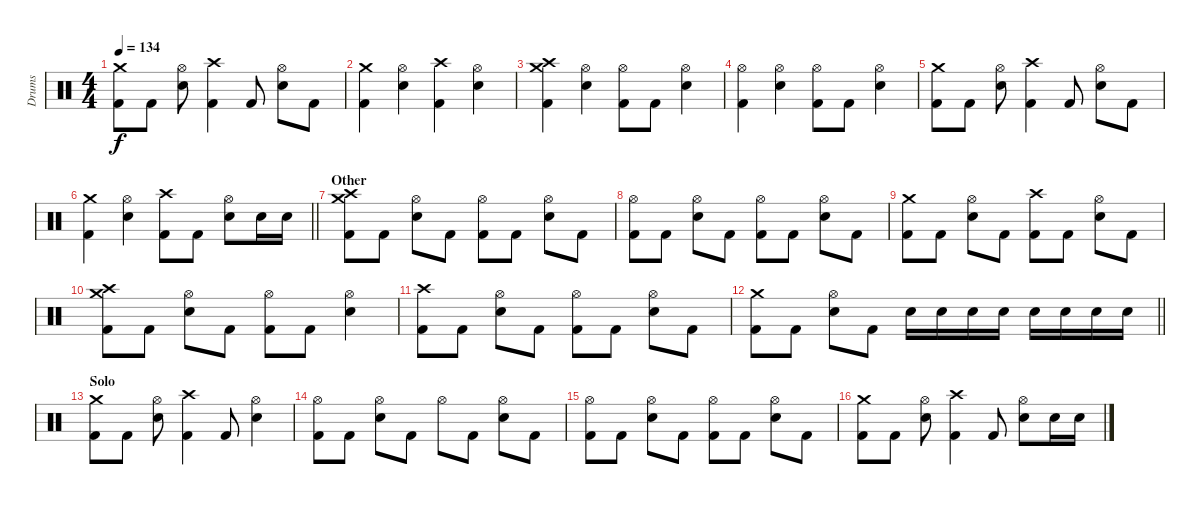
\track ("Drums" "Drums") {instrument percussion}
\staff {score}
\articulation defaults
\ts (4 4)
\tempo 134
\clef neutral
\ks c
("Crash medium (hit)" "Kick (hit) 2").8{dy f} "Kick (hit) 2".8 ("Hi-Hat (open)" "Snare (hit) 2").8 ("Crash high (hit)" "Kick (hit) 2").4 "Kick (hit) 2".8 ("Hi-Hat (open)" "Snare (hit) 2").8 "Kick (hit) 2".8 |
("Crash medium (hit)" "Kick (hit) 2").4 ("Hi-Hat (open)" "Snare (hit) 2").4 ("Crash high (hit)" "Kick (hit) 2").4 ("Hi-Hat (open)" "Snare (hit) 2").4 |
("Crash medium (hit)" "Crash high (hit)" "Kick (hit) 2").4 ("Hi-Hat (open)" "Snare (hit) 2").4 ("Hi-Hat (open)" "Kick (hit) 2").8 "Kick (hit) 2".8 ("Hi-Hat (open)" "Snare (hit) 2").4 |
("Hi-Hat (open)" "Kick (hit) 2").4 ("Hi-Hat (open)" "Snare (hit) 2").4 ("Hi-Hat (open)" "Kick (hit) 2").8 "Kick (hit) 2".8 ("Hi-Hat (open)" "Snare (hit) 2").4 |
("Crash medium (hit)" "Kick (hit) 2").8 "Kick (hit) 2".8 ("Hi-Hat (open)" "Snare (hit) 2").8 ("Crash high (hit)" "Kick (hit) 2").4 "Kick (hit) 2".8 ("Hi-Hat (open)" "Snare (hit) 2").8 "Kick (hit) 2".8 |
\barLineRight lightlight
("Crash medium (hit)" "Kick (hit) 2").4 ("Hi-Hat (open)" "Snare (hit) 2").4 ("Crash high (hit)" "Kick (hit) 2").8 "Kick (hit) 2".8 ("Hi-Hat (open)" "Snare (hit) 2").8 "Snare (hit) 2".16 "Snare (hit) 2".16 |
\section ("" "Other")
("Crash medium (hit)" "Crash high (hit)" "Kick (hit) 2").8 "Kick (hit) 2".8 ("Hi-Hat (open)" "Snare (hit) 2").8 "Kick (hit) 2".8 ("Hi-Hat (open)" "Kick (hit) 2").8 "Kick (hit) 2".8 ("Hi-Hat (open)" "Snare (hit) 2").8 "Kick (hit) 2".8 |
("Hi-Hat (open)" "Kick (hit) 2").8 "Kick (hit) 2".8 ("Hi-Hat (open)" "Snare (hit) 2").8 "Kick (hit) 2".8 ("Hi-Hat (open)" "Kick (hit) 2").8 "Kick (hit) 2".8 ("Hi-Hat (open)" "Snare (hit) 2").8 "Kick (hit) 2".8 |
("Crash medium (hit)" "Kick (hit) 2").8 "Kick (hit) 2".8 ("Hi-Hat (open)" "Snare (hit) 2").8 "Kick (hit) 2".8 ("Crash high (hit)" "Kick (hit) 2").8 "Kick (hit) 2".8 ("Hi-Hat (open)" "Snare (hit) 2").8 "Kick (hit) 2".8 |
("Crash medium (hit)" "Crash high (hit)" "Kick (hit) 2").8 "Kick (hit) 2".8 ("Hi-Hat (open)" "Snare (hit) 2").8 "Kick (hit) 2".8 ("Hi-Hat (open)" "Kick (hit) 2").8 "Kick (hit) 2".8 ("Hi-Hat (open)" "Snare (hit) 2").4 |
("Crash high (hit)" "Kick (hit) 2").8 "Kick (hit) 2".8 ("Hi-Hat (open)" "Snare (hit) 2").8 "Kick (hit) 2".8 ("Hi-Hat (open)" "Kick (hit) 2").8 "Kick (hit) 2".8 ("Hi-Hat (open)" "Snare (hit) 2").8 "Kick (hit) 2".8 |
\barLineRight lightlight
("Crash medium (hit)" "Kick (hit) 2").8 "Kick (hit) 2".8 ("Hi-Hat (open)" "Snare (hit) 2").8 "Kick (hit) 2".8 "Snare (hit) 2".16 "Snare (hit) 2".16 "Snare (hit) 2".16 "Snare (hit) 2".16 "Snare (hit) 2".16 "Snare (hit) 2".16 "Snare (hit) 2".16 "Snare (hit) 2".16 |
\section ("" "Solo")
("Crash medium (hit)" "Kick (hit) 2").8 "Kick (hit) 2".8 ("Hi-Hat (open)" "Snare (hit) 2").8 ("Crash high (hit)" "Kick (hit) 2").4 "Kick (hit) 2".8 ("Hi-Hat (open)" "Snare (hit) 2").4 |
("Hi-Hat (open)" "Kick (hit) 2").8 "Kick (hit) 2".8 ("Hi-Hat (open)" "Snare (hit) 2").8 "Kick (hit) 2".8 "Hi-Hat (open)".8 "Kick (hit) 2".8 ("Hi-Hat (open)" "Snare (hit) 2").8 "Kick (hit) 2".8 |
("Hi-Hat (open)" "Kick (hit) 2").8 "Kick (hit) 2".8 ("Hi-Hat (open)" "Snare (hit) 2").8 "Kick (hit) 2".8 ("Hi-Hat (open)" "Kick (hit) 2").8 "Kick (hit) 2".8 ("Hi-Hat (open)" "Snare (hit) 2").8 "Kick (hit) 2".8 |
("Crash medium (hit)" "Kick (hit) 2").8 "Kick (hit) 2".8 ("Hi-Hat (open)" "Snare (hit) 2").8 ("Crash high (hit)" "Kick (hit) 2").4 "Kick (hit) 2".8 ("Hi-Hat (open)" "Snare (hit) 2").8 "Snare (hit) 2".16 "Snare (hit) 2".16
